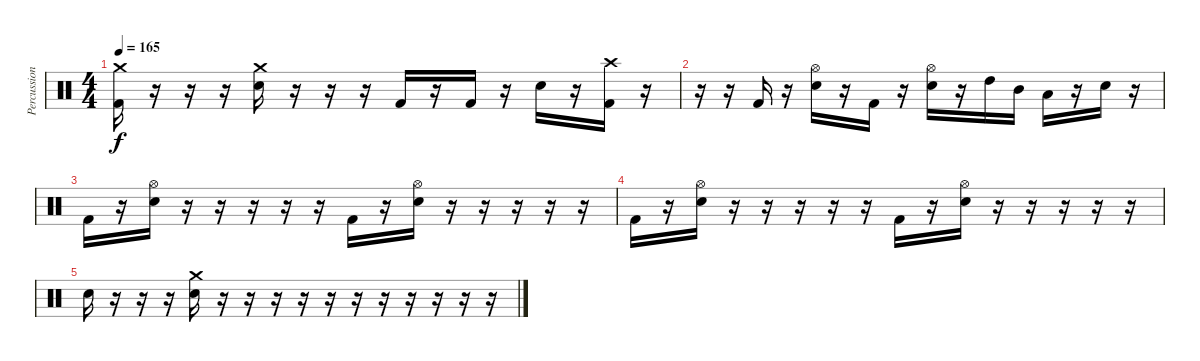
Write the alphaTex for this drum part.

\track ("Percussion" "Percussion") {instrument percussion}
\staff {score}
\articulation defaults
\ts (4 4)
\tempo 165
\clef neutral
\ks c
("Crash medium (hit)" "Kick (hit) 2").16{dy f} r.16 r.16 r.16 ("Crash medium (hit)" "Electric Snare (hit)").16 r.16 r.16 r.16 "Kick (hit) 2".16 r.16 "Kick (hit) 2".16 r.16 "Electric Snare (hit)".16 r.16 ("Crash high (hit)" "Kick (hit) 2").16 r.16 |
r.16 r.16 "Kick (hit) 2".16 r.16 ("Hi-Hat (open)" "Electric Snare (hit)").16 r.16 "Kick (hit) 2".16 r.16 ("Hi-Hat (open)" "Electric Snare (hit)").16 r.16 "High Tom (hit)".16 "Mid Tom (hit)".16 "Low Tom (hit)".16 r.16 "Electric Snare (hit)".16 r.16 |
"Kick (hit) 2".16 r.16 ("Hi-Hat (open)" "Electric Snare (hit)").16 r.16 r.16 r.16 r.16 r.16 "Kick (hit) 2".16 r.16 ("Hi-Hat (open)" "Electric Snare (hit)").16 r.16 r.16 r.16 r.16 r.16 |
"Kick (hit) 2".16 r.16 ("Hi-Hat (open)" "Electric Snare (hit)").16 r.16 r.16 r.16 r.16 r.16 "Kick (hit) 2".16 r.16 ("Hi-Hat (open)" "Electric Snare (hit)").16 r.16 r.16 r.16 r.16 r.16 |
"Electric Snare (hit)".16 r.16 r.16 r.16 ("Crash medium (hit)" "Electric Snare (hit)").16 r.16 r.16 r.16 r.16 r.16 r.16 r.16 r.16 r.16 r.16 r.16
